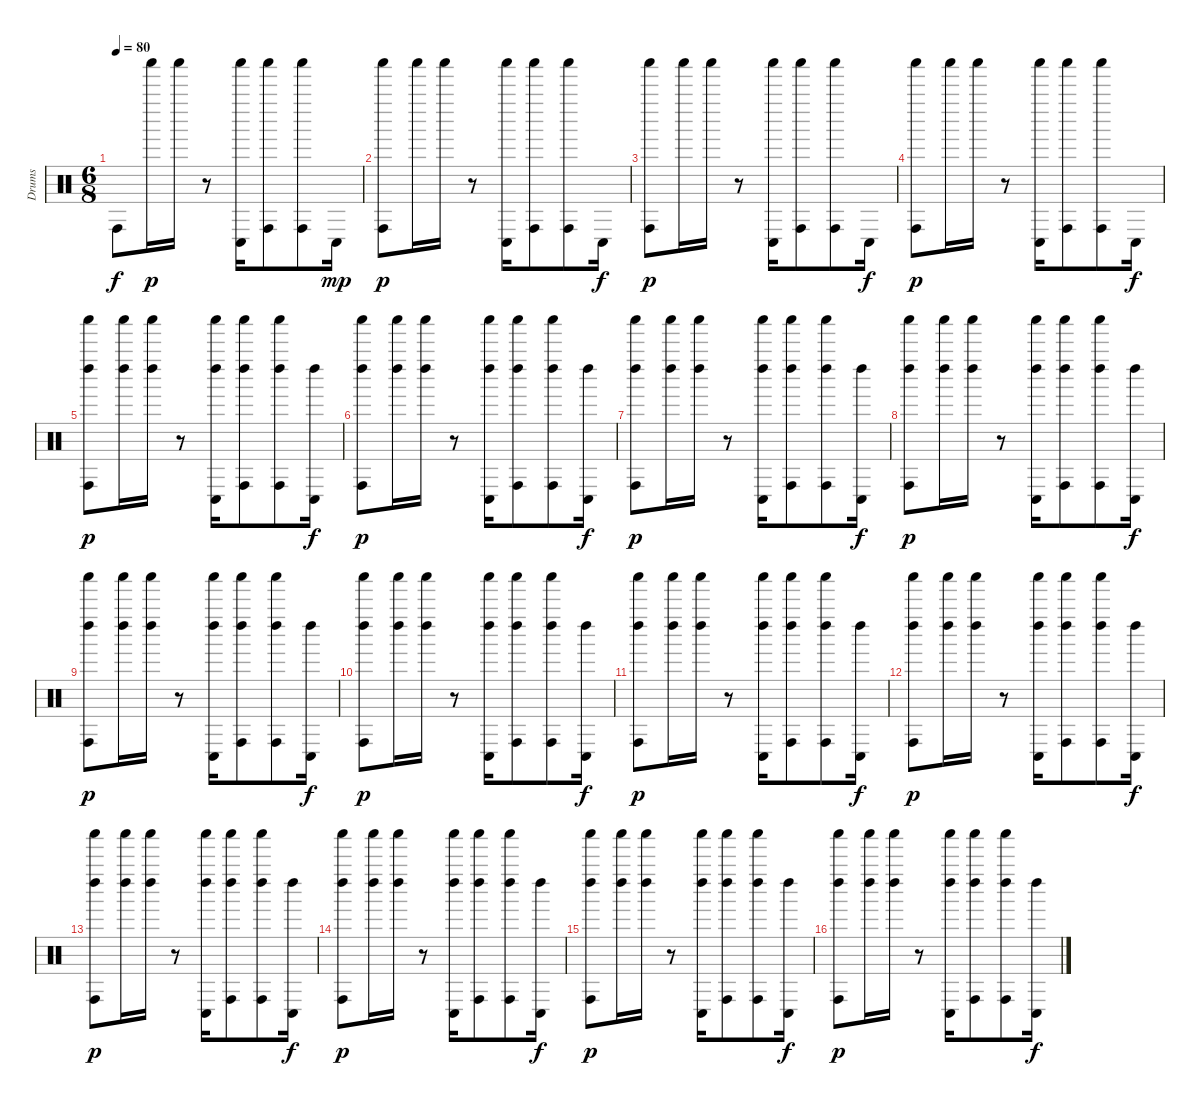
\track ("Drums" "Drums") {instrument percussion}
\staff {score}
\articulation defaults
\ts (6 8)
\tempo 80
\clef neutral
\ks c "Conga high (hit)".8{dy f balance 8} "Shaker (hit)".16{dy p balance 8} "Shaker (hit)".16{balance 8}
r.8{balance 12} ("Conga low (hit)" "Shaker (hit)").16{balance 8} ("Conga high (hit)" "Shaker (hit)").8{balance 0} ("Conga high (hit)" "Shaker (hit)").8{balance 8} "Conga low (hit)".16{dy mp} |
("Conga high (hit)" "Shaker (hit)").8{dy p} "Shaker (hit)".16{balance 9} "Shaker (hit)".16{balance 3} r.8{balance 12} ("Conga low (hit)" "Shaker (hit)").16{balance 8} ("Conga high (hit)" "Shaker (hit)").8{balance 16} ("Conga high (hit)" "Shaker (hit)").8{balance 8} "Conga low (hit)".16{dy f} |
("Conga high (hit)" "Shaker (hit)").8{dy p} "Shaker (hit)".16{balance 9} "Shaker (hit)".16{balance 3} r.8{balance 12} ("Conga low (hit)" "Shaker (hit)").16{balance 8} ("Conga high (hit)" "Shaker (hit)").8{balance 16} ("Conga high (hit)" "Shaker (hit)").8{balance 8} "Conga low (hit)".16{dy f} |
("Conga high (hit)" "Shaker (hit)").8{dy p} "Shaker (hit)".16{balance 9} "Shaker (hit)".16{balance 3} r.8{balance 12} ("Conga low (hit)" "Shaker (hit)").16{balance 8} ("Conga high (hit)" "Shaker (hit)").8{balance 16} ("Conga high (hit)" "Shaker (hit)").8{balance 8} "Conga low (hit)".16{dy f} |
("Conga high (hit)" "Shaker (hit)" "Left Maraca (hit)").8{dy p balance 8} ("Shaker (hit)" "Left Maraca (hit)").16 ("Shaker (hit)" "Left Maraca (hit)").16 r.8 ("Conga low (hit)" "Shaker (hit)" "Left Maraca (hit)").16{balance 8} ("Conga high (hit)" "Shaker (hit)" "Left Maraca (hit)").8{balance 0} ("Conga high (hit)" "Shaker (hit)" "Left Maraca (hit)").8{balance 8} ("Conga low (hit)" "Left Maraca (hit)").16{dy f balance 0} |
("Conga high (hit)" "Shaker (hit)" "Left Maraca (hit)").8{dy p balance 8} ("Shaker (hit)" "Left Maraca (hit)").16 ("Shaker (hit)" "Left Maraca (hit)").16 r.8 ("Conga low (hit)" "Shaker (hit)" "Left Maraca (hit)").16{balance 8} ("Conga high (hit)" "Shaker (hit)" "Left Maraca (hit)").8{balance 16} ("Conga high (hit)" "Shaker (hit)" "Left Maraca (hit)").8{balance 8} ("Conga low (hit)" "Left Maraca (hit)").16{dy f balance 16} |
("Conga high (hit)" "Shaker (hit)" "Left Maraca (hit)").8{dy p balance 8} ("Shaker (hit)" "Left Maraca (hit)").16 ("Shaker (hit)" "Left Maraca (hit)").16 r.8 ("Conga low (hit)" "Shaker (hit)" "Left Maraca (hit)").16{balance 8} ("Conga high (hit)" "Shaker (hit)" "Left Maraca (hit)").8{balance 16} ("Conga high (hit)" "Shaker (hit)" "Left Maraca (hit)").8{balance 8} ("Conga low (hit)" "Left Maraca (hit)").16{dy f balance 16} |
("Conga high (hit)" "Shaker (hit)" "Left Maraca (hit)").8{dy p balance 8} ("Shaker (hit)" "Left Maraca (hit)").16 ("Shaker (hit)" "Left Maraca (hit)").16 r.8 ("Conga low (hit)" "Shaker (hit)" "Left Maraca (hit)").16{balance 8} ("Conga high (hit)" "Shaker (hit)" "Left Maraca (hit)").8{balance 0} ("Conga high (hit)" "Shaker (hit)" "Left Maraca (hit)").8{balance 8} ("Conga low (hit)" "Left Maraca (hit)").16{dy f balance 0} |
("Conga high (hit)" "Shaker (hit)" "Left Maraca (hit)").8{dy p balance 8} ("Shaker (hit)" "Left Maraca (hit)").16 ("Shaker (hit)" "Left Maraca (hit)").16 r.8 ("Conga low (hit)" "Shaker (hit)" "Left Maraca (hit)").16{balance 8} ("Conga high (hit)" "Shaker (hit)" "Left Maraca (hit)").8{balance 0} ("Conga high (hit)" "Shaker (hit)" "Left Maraca (hit)").8{balance 8} ("Conga low (hit)" "Left Maraca (hit)").16{dy f balance 0} |
("Conga high (hit)" "Shaker (hit)" "Left Maraca (hit)").8{dy p balance 8} ("Shaker (hit)" "Left Maraca (hit)").16 ("Shaker (hit)" "Left Maraca (hit)").16 r.8 ("Conga low (hit)" "Shaker (hit)" "Left Maraca (hit)").16{balance 8} ("Conga high (hit)" "Shaker (hit)" "Left Maraca (hit)").8{balance 16} ("Conga high (hit)" "Shaker (hit)" "Left Maraca (hit)").8{balance 8} ("Conga low (hit)" "Left Maraca (hit)").16{dy f balance 16} |
("Conga high (hit)" "Shaker (hit)" "Left Maraca (hit)").8{dy p balance 8} ("Shaker (hit)" "Left Maraca (hit)").16 ("Shaker (hit)" "Left Maraca (hit)").16 r.8 ("Conga low (hit)" "Shaker (hit)" "Left Maraca (hit)").16{balance 8} ("Conga high (hit)" "Shaker (hit)" "Left Maraca (hit)").8{balance 16} ("Conga high (hit)" "Shaker (hit)" "Left Maraca (hit)").8{balance 8} ("Conga low (hit)" "Left Maraca (hit)").16{dy f balance 16} |
("Conga high (hit)" "Shaker (hit)" "Left Maraca (hit)").8{dy p balance 8} ("Shaker (hit)" "Left Maraca (hit)").16 ("Shaker (hit)" "Left Maraca (hit)").16 r.8 ("Conga low (hit)" "Shaker (hit)" "Left Maraca (hit)").16{balance 8} ("Conga high (hit)" "Shaker (hit)" "Left Maraca (hit)").8{balance 0} ("Conga high (hit)" "Shaker (hit)" "Left Maraca (hit)").8{balance 8} ("Conga low (hit)" "Left Maraca (hit)").16{dy f balance 0} |
("Conga high (hit)" "Shaker (hit)" "Left Maraca (hit)").8{dy p balance 8} ("Shaker (hit)" "Left Maraca (hit)").16 ("Shaker (hit)" "Left Maraca (hit)").16 r.8 ("Conga low (hit)" "Shaker (hit)" "Left Maraca (hit)").16{balance 8} ("Conga high (hit)" "Shaker (hit)" "Left Maraca (hit)").8{balance 0} ("Conga high (hit)" "Shaker (hit)" "Left Maraca (hit)").8{balance 8} ("Conga low (hit)" "Left Maraca (hit)").16{dy f balance 0} |
("Conga high (hit)" "Shaker (hit)" "Left Maraca (hit)").8{dy p balance 8} ("Shaker (hit)" "Left Maraca (hit)").16 ("Shaker (hit)" "Left Maraca (hit)").16 r.8 ("Conga low (hit)" "Shaker (hit)" "Left Maraca (hit)").16{balance 8} ("Conga high (hit)" "Shaker (hit)" "Left Maraca (hit)").8{balance 16} ("Conga high (hit)" "Shaker (hit)" "Left Maraca (hit)").8{balance 8} ("Conga low (hit)" "Left Maraca (hit)").16{dy f balance 16} |
("Conga high (hit)" "Shaker (hit)" "Left Maraca (hit)").8{dy p balance 8} ("Shaker (hit)" "Left Maraca (hit)").16 ("Shaker (hit)" "Left Maraca (hit)").16 r.8 ("Conga low (hit)" "Shaker (hit)" "Left Maraca (hit)").16{balance 8} ("Conga high (hit)" "Shaker (hit)" "Left Maraca (hit)").8{balance 16} ("Conga high (hit)" "Shaker (hit)" "Left Maraca (hit)").8{balance 8} ("Conga low (hit)" "Left Maraca (hit)").16{dy f balance 16} |
("Conga high (hit)" "Shaker (hit)" "Left Maraca (hit)").8{dy p balance 8} ("Shaker (hit)" "Left Maraca (hit)").16 ("Shaker (hit)" "Left Maraca (hit)").16 r.8 ("Conga low (hit)" "Shaker (hit)" "Left Maraca (hit)").16{balance 8} ("Conga high (hit)" "Shaker (hit)" "Left Maraca (hit)").8{balance 0} ("Conga high (hit)" "Shaker (hit)" "Left Maraca (hit)").8{balance 8} ("Conga low (hit)" "Left Maraca (hit)").16{dy f balance 0}
